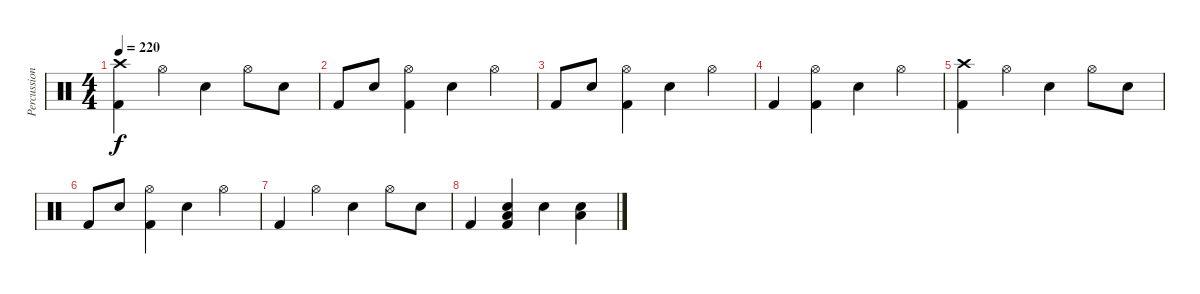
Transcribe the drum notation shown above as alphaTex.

\track ("Percussion" "Percussion") {instrument percussion}
\staff {score}
\articulation defaults
\ts (4 4)
\tempo 220
\clef neutral
\ks c
("Crash high (hit)" "Kick (hit) 2").4{dy f} "Hi-Hat (open)".4 "Electric Snare (hit)".4 "Hi-Hat (open)".8 "Electric Snare (hit)".8 |
"Kick (hit) 2".8 "Electric Snare (hit)".8 ("Hi-Hat (open)" "Kick (hit) 2").4 "Electric Snare (hit)".4 "Hi-Hat (open)".4 |
"Kick (hit) 2".8 "Electric Snare (hit)".8 ("Hi-Hat (open)" "Kick (hit) 2").4 "Electric Snare (hit)".4 "Hi-Hat (open)".4 |
"Kick (hit) 2".4 ("Hi-Hat (open)" "Kick (hit) 2").4 "Electric Snare (hit)".4 "Hi-Hat (open)".4 |
("Crash high (hit)" "Kick (hit) 2").4 "Hi-Hat (open)".4 "Electric Snare (hit)".4 "Hi-Hat (open)".8 "Electric Snare (hit)".8 |
"Kick (hit) 2".8 "Electric Snare (hit)".8 ("Hi-Hat (open)" "Kick (hit) 2").4 "Electric Snare (hit)".4 "Hi-Hat (open)".4 |
"Kick (hit) 2".4 "Hi-Hat (open)".4 "Electric Snare (hit)".4 "Hi-Hat (open)".8 "Electric Snare (hit)".8 |
"Kick (hit) 2".4 ("Electric Snare (hit)" "Low Floor Tom (hit)" "Kick (hit) 2").4 "Electric Snare (hit)".4 ("Electric Snare (hit)" "Low Floor Tom (hit)").4
